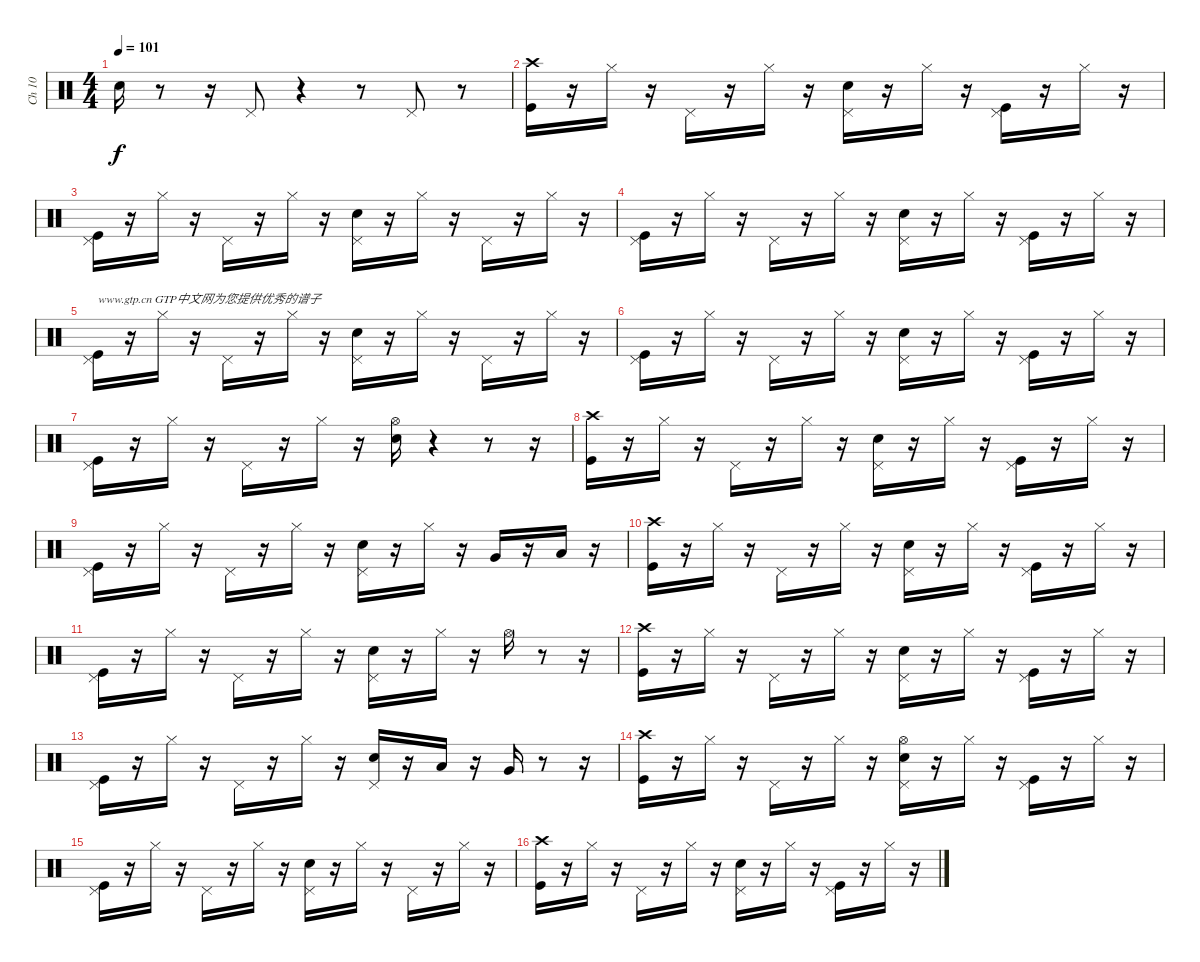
\track ("Ch 10   " "Ch 10   ") {instrument percussion}
\staff {score}
\articulation defaults
\ts (4 4)
\tempo 101
\clef neutral
\ks c "Snare (hit) 2".16{dy f}
r.8 r.16 "Pedal Hi-Hat (hit)".8 r.4 r.8 "Pedal Hi-Hat (hit)".8 r.8 |
("Kick (hit)" "Crash high (hit)").16 r.16 "Hi-Hat (closed)".16 r.16 "Pedal Hi-Hat (hit)".16 r.16 "Hi-Hat (closed)".16 r.16 ("Snare (hit) 2" "Pedal Hi-Hat (hit)").16 r.16 "Hi-Hat (closed)".16 r.16 ("Pedal Hi-Hat (hit)" "Kick (hit)").16 r.16 "Hi-Hat (closed)".16 r.16 |
("Kick (hit)" "Pedal Hi-Hat (hit)").16 r.16 "Hi-Hat (closed)".16 r.16 "Pedal Hi-Hat (hit)".16 r.16 "Hi-Hat (closed)".16 r.16 ("Snare (hit) 2" "Pedal Hi-Hat (hit)").16 r.16 "Hi-Hat (closed)".16 r.16 "Pedal Hi-Hat (hit)".16 r.16 "Hi-Hat (closed)".16 r.16 |
("Kick (hit)" "Pedal Hi-Hat (hit)").16 r.16 "Hi-Hat (closed)".16 r.16 "Pedal Hi-Hat (hit)".16 r.16 "Hi-Hat (closed)".16 r.16 ("Snare (hit) 2" "Pedal Hi-Hat (hit)").16 r.16 "Hi-Hat (closed)".16 r.16 ("Kick (hit)" "Pedal Hi-Hat (hit)").16 r.16 "Hi-Hat (closed)".16 r.16 |
("Pedal Hi-Hat (hit)" "Kick (hit)").16{txt "www.gtp.cn GTP中文网为您提供优秀的谱子"} r.16 "Hi-Hat (closed)".16 r.16 "Pedal Hi-Hat (hit)".16 r.16 "Hi-Hat (closed)".16 r.16 ("Pedal Hi-Hat (hit)" "Snare (hit) 2").16 r.16 "Hi-Hat (closed)".16 r.16 "Pedal Hi-Hat (hit)".16 r.16 "Hi-Hat (closed)".16 r.16 |
("Kick (hit)" "Pedal Hi-Hat (hit)").16 r.16 "Hi-Hat (closed)".16 r.16 "Pedal Hi-Hat (hit)".16 r.16 "Hi-Hat (closed)".16 r.16 ("Snare (hit) 2" "Pedal Hi-Hat (hit)").16 r.16 "Hi-Hat (closed)".16 r.16 ("Pedal Hi-Hat (hit)" "Kick (hit)").16 r.16 "Hi-Hat (closed)".16 r.16 |
("Pedal Hi-Hat (hit)" "Kick (hit)").16 r.16 "Hi-Hat (closed)".16 r.16 "Pedal Hi-Hat (hit)".16 r.16 "Hi-Hat (closed)".16 r.16 ("Hi-Hat (open)" "Snare (hit) 2").16 r.4 r.8 r.16 |
("Crash high (hit)" "Kick (hit)").16 r.16 "Hi-Hat (closed)".16 r.16 "Pedal Hi-Hat (hit)".16 r.16 "Hi-Hat (closed)".16 r.16 ("Snare (hit) 2" "Pedal Hi-Hat (hit)").16 r.16 "Hi-Hat (closed)".16 r.16 ("Kick (hit)" "Pedal Hi-Hat (hit)").16 r.16 "Hi-Hat (closed)".16 r.16 |
("Kick (hit)" "Pedal Hi-Hat (hit)").16 r.16 "Hi-Hat (closed)".16 r.16 "Pedal Hi-Hat (hit)".16 r.16 "Hi-Hat (closed)".16 r.16 ("Snare (hit) 2" "Pedal Hi-Hat (hit)").16 r.16 "Hi-Hat (closed)".16 r.16 "Very Low Tom (hit)".16 r.16 "Low Floor Tom (hit)".16 r.16 |
("Kick (hit)" "Crash high (hit)").16 r.16 "Hi-Hat (closed)".16 r.16 "Pedal Hi-Hat (hit)".16 r.16 "Hi-Hat (closed)".16 r.16 ("Snare (hit) 2" "Pedal Hi-Hat (hit)").16 r.16 "Hi-Hat (closed)".16 r.16 ("Kick (hit)" "Pedal Hi-Hat (hit)").16 r.16 "Hi-Hat (closed)".16 r.16 |
("Kick (hit)" "Pedal Hi-Hat (hit)").16 r.16 "Hi-Hat (closed)".16 r.16 "Pedal Hi-Hat (hit)".16 r.16 "Hi-Hat (closed)".16 r.16 ("Snare (hit) 2" "Pedal Hi-Hat (hit)").16 r.16 "Hi-Hat (closed)".16 r.16 "Hi-Hat (open)".16 r.8 r.16 |
("Kick (hit)" "Crash high (hit)").16 r.16 "Hi-Hat (closed)".16 r.16 "Pedal Hi-Hat (hit)".16 r.16 "Hi-Hat (closed)".16 r.16 ("Snare (hit) 2" "Pedal Hi-Hat (hit)").16 r.16 "Hi-Hat (closed)".16 r.16 ("Kick (hit)" "Pedal Hi-Hat (hit)").16 r.16 "Hi-Hat (closed)".16 r.16 |
("Kick (hit)" "Pedal Hi-Hat (hit)").16 r.16 "Hi-Hat (closed)".16 r.16 "Pedal Hi-Hat (hit)".16 r.16 "Hi-Hat (closed)".16 r.16 ("Snare (hit) 2" "Pedal Hi-Hat (hit)").16 r.16 "Low Tom (hit)".16 r.16 "Very Low Tom (hit)".16 r.8 r.16 |
("Kick (hit)" "Crash high (hit)").16 r.16 "Hi-Hat (closed)".16 r.16 "Pedal Hi-Hat (hit)".16 r.16 "Hi-Hat (closed)".16 r.16 ("Pedal Hi-Hat (hit)" "Snare (hit) 2" "Hi-Hat (open)").16 r.16 "Hi-Hat (closed)".16 r.16 ("Pedal Hi-Hat (hit)" "Kick (hit)").16 r.16 "Hi-Hat (closed)".16 r.16 |
("Kick (hit)" "Pedal Hi-Hat (hit)").16 r.16 "Hi-Hat (closed)".16 r.16 "Pedal Hi-Hat (hit)".16 r.16 "Hi-Hat (closed)".16 r.16 ("Snare (hit) 2" "Pedal Hi-Hat (hit)").16 r.16 "Hi-Hat (closed)".16 r.16 "Pedal Hi-Hat (hit)".16 r.16 "Hi-Hat (closed)".16 r.16 |
("Kick (hit)" "Crash high (hit)").16 r.16 "Hi-Hat (closed)".16 r.16 "Pedal Hi-Hat (hit)".16 r.16 "Hi-Hat (closed)".16 r.16 ("Snare (hit) 2" "Pedal Hi-Hat (hit)").16 r.16 "Hi-Hat (closed)".16 r.16 ("Pedal Hi-Hat (hit)" "Kick (hit)").16 r.16 "Hi-Hat (closed)".16 r.16
